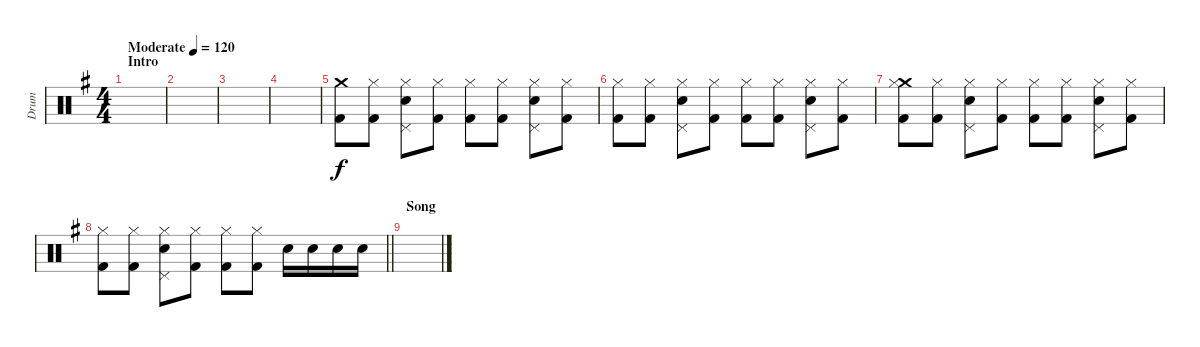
\track ("Drum" "Drum") {instrument percussion}
\staff {score}
\articulation defaults
\ts (4 4)
\section ("" "Intro")
\tempo (120 "Moderate")
\tempo 65
\tempo (120 "Moderate")
\clef neutral
\ks g
|
|
|
|
("Crash medium (hit)" "Kick (hit) 2").8 ("Hi-Hat (closed)" "Kick (hit) 2").8 ("Pedal Hi-Hat (hit)" "Hi-Hat (closed)" "Electric Snare (hit)").8 ("Hi-Hat (closed)" "Kick (hit) 2").8 ("Hi-Hat (closed)" "Kick (hit) 2").8 ("Hi-Hat (closed)" "Kick (hit) 2").8 ("Pedal Hi-Hat (hit)" "Hi-Hat (closed)" "Electric Snare (hit)").8 ("Hi-Hat (closed)" "Kick (hit) 2").8 |
("Hi-Hat (closed)" "Kick (hit) 2").8 ("Hi-Hat (closed)" "Kick (hit) 2").8 ("Pedal Hi-Hat (hit)" "Hi-Hat (closed)" "Electric Snare (hit)").8 ("Hi-Hat (closed)" "Kick (hit) 2").8 ("Hi-Hat (closed)" "Kick (hit) 2").8 ("Hi-Hat (closed)" "Kick (hit) 2").8 ("Pedal Hi-Hat (hit)" "Hi-Hat (closed)" "Electric Snare (hit)").8 ("Hi-Hat (closed)" "Kick (hit) 2").8 |
("Crash medium (hit)" "Hi-Hat (closed)" "Kick (hit) 2").8 ("Hi-Hat (closed)" "Kick (hit) 2").8 ("Pedal Hi-Hat (hit)" "Hi-Hat (closed)" "Electric Snare (hit)").8 ("Hi-Hat (closed)" "Kick (hit) 2").8 ("Hi-Hat (closed)" "Kick (hit) 2").8 ("Hi-Hat (closed)" "Kick (hit) 2").8 ("Pedal Hi-Hat (hit)" "Hi-Hat (closed)" "Electric Snare (hit)").8 ("Hi-Hat (closed)" "Kick (hit) 2").8 |
\barLineRight lightlight
("Hi-Hat (closed)" "Kick (hit) 2").8 ("Hi-Hat (closed)" "Kick (hit) 2").8 ("Pedal Hi-Hat (hit)" "Hi-Hat (closed)" "Electric Snare (hit)").8 ("Hi-Hat (closed)" "Kick (hit) 2").8 ("Hi-Hat (closed)" "Kick (hit) 2").8 ("Hi-Hat (closed)" "Kick (hit) 2").8 "Electric Snare (hit)".16 "Electric Snare (hit)".16 "Electric Snare (hit)".16 "Electric Snare (hit)".16 |
\section ("" "Song")
